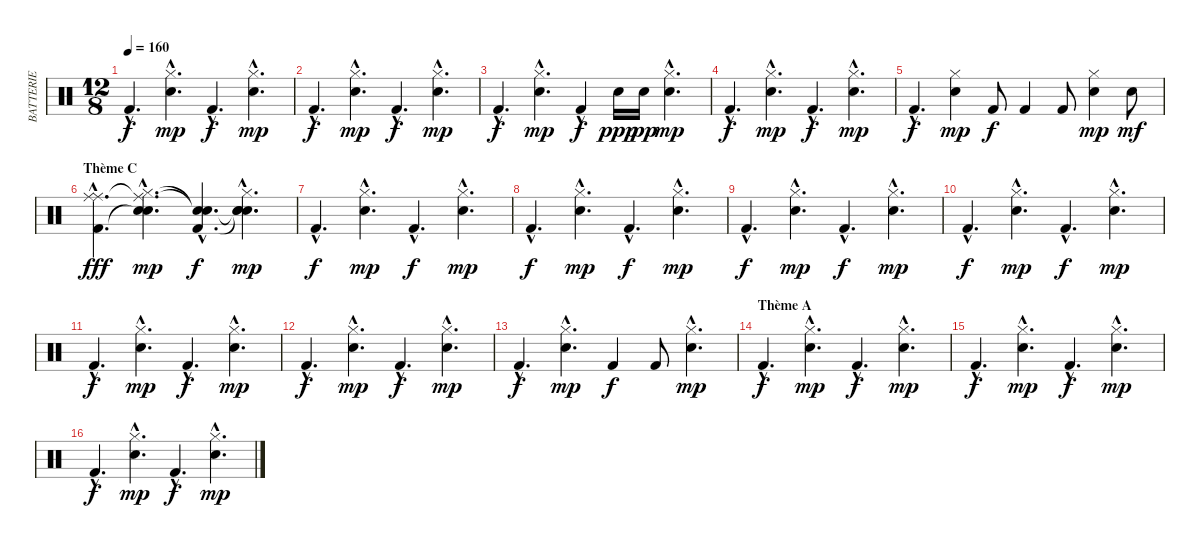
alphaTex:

\track ("BATTERIE" "BATTERIE") {instrument percussion}
\staff {score}
\articulation defaults
\ts (12 8)
\tempo 160
\clef neutral
\ks c "Kick (hit) 2"{hac}.4{d dy f}
("Hi-Hat (closed)"{hac} "Snare (hit) 2"{hac}).4{d dy mp} "Kick (hit) 2"{hac}.4{d dy f} ("Hi-Hat (closed)"{hac} "Snare (hit) 2"{hac}).4{d dy mp} |
"Kick (hit) 2"{hac}.4{d dy f} ("Hi-Hat (closed)"{hac} "Snare (hit) 2"{hac}).4{d dy mp} "Kick (hit) 2"{hac}.4{d dy f} ("Hi-Hat (closed)"{hac} "Snare (hit) 2"{hac}).4{d dy mp} |
"Kick (hit) 2"{hac}.4{d dy f} ("Hi-Hat (closed)"{hac} "Snare (hit) 2"{hac}).4{d dy mp} "Kick (hit) 2"{hac}.4{dy f} "Snare (hit) 2".16{dy ppp} "Snare (hit) 2".16{dy pp} ("Hi-Hat (closed)"{hac} "Snare (hit) 2"{hac}).4{d dy mp} |
"Kick (hit) 2"{hac}.4{d dy f} ("Hi-Hat (closed)"{hac} "Snare (hit) 2"{hac}).4{d dy mp} "Kick (hit) 2"{hac}.4{d dy f} ("Hi-Hat (closed)"{hac} "Snare (hit) 2"{hac}).4{d dy mp} |
"Kick (hit) 2"{hac}.4{d dy f} ("Hi-Hat (closed)" "Snare (hit) 2").4{dy mp} "Kick (hit) 2".8{dy f} "Kick (hit) 2".4 "Kick (hit) 2".8 ("Hi-Hat (closed)" "Snare (hit) 2").4{dy mp} "Snare (hit) 2".8{dy mf} |
\section ("" "Thème C")
("Ride (middle)"{hac} "Ride (middle)"{hac} "Kick (hit) 2"{hac}).4{d dy fff} ("Ride (middle)"{hac t} "Hi-Hat (closed)"{hac} "Snare (hit)"{hac t} "Snare (hit) 2"{hac}).4{d dy mp} ("Snare (hit)"{hac t} "Snare (hit)"{hac t} "Kick (hit) 2"{hac}).4{d dy f} ("Snare (hit)"{hac t} "Hi-Hat (closed)"{hac} "Snare (hit)"{hac t} "Snare (hit) 2"{hac}).4{d dy mp} |
"Kick (hit) 2"{hac}.4{d dy f} ("Hi-Hat (closed)"{hac} "Snare (hit) 2"{hac}).4{d dy mp} "Kick (hit) 2"{hac}.4{d dy f} ("Hi-Hat (closed)"{hac} "Snare (hit) 2"{hac}).4{d dy mp} |
"Kick (hit) 2"{hac}.4{d dy f} ("Hi-Hat (closed)"{hac} "Snare (hit) 2"{hac}).4{d dy mp} "Kick (hit) 2"{hac}.4{d dy f} ("Hi-Hat (closed)"{hac} "Snare (hit) 2"{hac}).4{d dy mp} |
"Kick (hit) 2"{hac}.4{d dy f} ("Hi-Hat (closed)"{hac} "Snare (hit) 2"{hac}).4{d dy mp} "Kick (hit) 2"{hac}.4{d dy f} ("Hi-Hat (closed)"{hac} "Snare (hit) 2"{hac}).4{d dy mp} |
"Kick (hit) 2"{hac}.4{d dy f} ("Hi-Hat (closed)"{hac} "Snare (hit) 2"{hac}).4{d dy mp} "Kick (hit) 2"{hac}.4{d dy f} ("Hi-Hat (closed)"{hac} "Snare (hit) 2"{hac}).4{d dy mp} |
"Kick (hit) 2"{hac}.4{d dy f} ("Hi-Hat (closed)"{hac} "Snare (hit) 2"{hac}).4{d dy mp} "Kick (hit) 2"{hac}.4{d dy f} ("Hi-Hat (closed)"{hac} "Snare (hit) 2"{hac}).4{d dy mp} |
"Kick (hit) 2"{hac}.4{d dy f} ("Hi-Hat (closed)"{hac} "Snare (hit) 2"{hac}).4{d dy mp} "Kick (hit) 2"{hac}.4{d dy f} ("Hi-Hat (closed)"{hac} "Snare (hit) 2"{hac}).4{d dy mp} |
"Kick (hit) 2"{hac}.4{d dy f} ("Hi-Hat (closed)"{hac} "Snare (hit) 2"{hac}).4{d dy mp} "Kick (hit) 2".4{dy f} "Kick (hit) 2".8 ("Hi-Hat (closed)"{hac} "Snare (hit) 2"{hac}).4{d dy mp} |
\section ("" "Thème A")
"Kick (hit) 2"{hac}.4{d dy f} ("Hi-Hat (closed)"{hac} "Snare (hit) 2"{hac}).4{d dy mp} "Kick (hit) 2"{hac}.4{d dy f} ("Hi-Hat (closed)"{hac} "Snare (hit) 2"{hac}).4{d dy mp} |
"Kick (hit) 2"{hac}.4{d dy f} ("Hi-Hat (closed)"{hac} "Snare (hit) 2"{hac}).4{d dy mp} "Kick (hit) 2"{hac}.4{d dy f} ("Hi-Hat (closed)"{hac} "Snare (hit) 2"{hac}).4{d dy mp} |
"Kick (hit) 2"{hac}.4{d dy f} ("Hi-Hat (closed)"{hac} "Snare (hit) 2"{hac}).4{d dy mp} "Kick (hit) 2"{hac}.4{d dy f} ("Hi-Hat (closed)"{hac} "Snare (hit) 2"{hac}).4{d dy mp}
